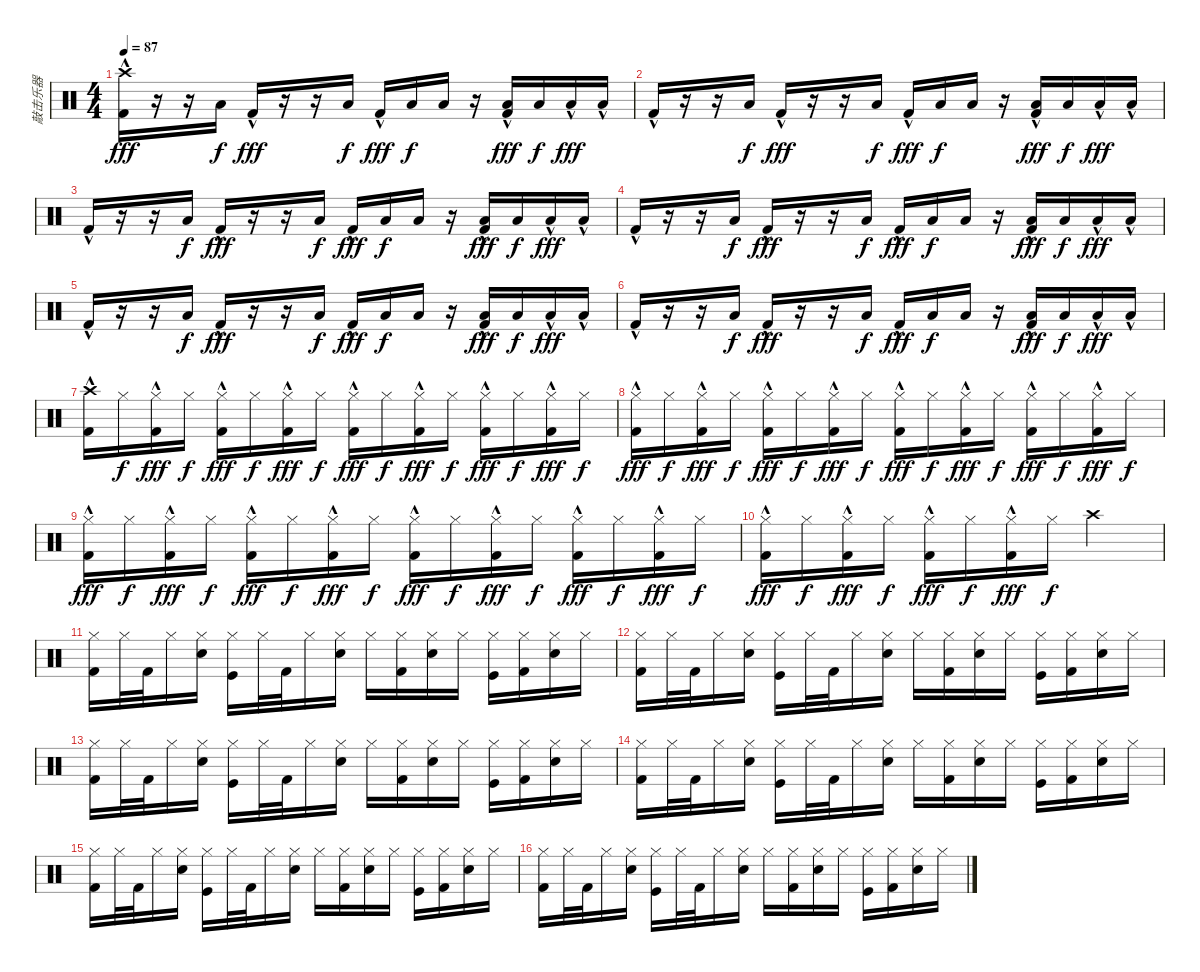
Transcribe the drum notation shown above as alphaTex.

\track ("敲击乐器" "敲击乐器") {instrument percussion}
\staff {score}
\articulation defaults
\ts (4 4)
\tempo 87
\clef neutral
\ks c
("Crash high (hit)" "Kick (hit) 2"{hac}).16{dy fff} r.16 r.16 "Low Floor Tom (hit)".16{dy f} "Kick (hit) 2"{hac}.16{dy fff} r.16 r.16 "Low Floor Tom (hit)".16{dy f} "Kick (hit) 2"{hac}.16{dy fff} "Low Floor Tom (hit)".16{dy f} "Low Floor Tom (hit)".16 r.16 ("Low Floor Tom (hit)" "Kick (hit) 2"{hac}).16{dy fff} "Low Floor Tom (hit)".16{dy f} "Low Floor Tom (hit)"{hac}.16{dy fff} "Low Floor Tom (hit)"{hac}.16 |
"Kick (hit) 2"{hac}.16 r.16 r.16 "Low Floor Tom (hit)".16{dy f} "Kick (hit) 2"{hac}.16{dy fff} r.16 r.16 "Low Floor Tom (hit)".16{dy f} "Kick (hit) 2"{hac}.16{dy fff} "Low Floor Tom (hit)".16{dy f} "Low Floor Tom (hit)".16 r.16 ("Low Floor Tom (hit)" "Kick (hit) 2"{hac}).16{dy fff} "Low Floor Tom (hit)".16{dy f} "Low Floor Tom (hit)"{hac}.16{dy fff} "Low Floor Tom (hit)"{hac}.16 |
"Kick (hit) 2"{hac}.16 r.16 r.16 "Low Floor Tom (hit)".16{dy f} "Kick (hit) 2"{hac}.16{dy fff} r.16 r.16 "Low Floor Tom (hit)".16{dy f} "Kick (hit) 2"{hac}.16{dy fff} "Low Floor Tom (hit)".16{dy f} "Low Floor Tom (hit)".16 r.16 ("Low Floor Tom (hit)" "Kick (hit) 2"{hac}).16{dy fff} "Low Floor Tom (hit)".16{dy f} "Low Floor Tom (hit)"{hac}.16{dy fff} "Low Floor Tom (hit)"{hac}.16 |
"Kick (hit) 2"{hac}.16 r.16 r.16 "Low Floor Tom (hit)".16{dy f} "Kick (hit) 2"{hac}.16{dy fff} r.16 r.16 "Low Floor Tom (hit)".16{dy f} "Kick (hit) 2"{hac}.16{dy fff} "Low Floor Tom (hit)".16{dy f} "Low Floor Tom (hit)".16 r.16 ("Low Floor Tom (hit)" "Kick (hit) 2"{hac}).16{dy fff} "Low Floor Tom (hit)".16{dy f} "Low Floor Tom (hit)"{hac}.16{dy fff} "Low Floor Tom (hit)"{hac}.16 |
"Kick (hit) 2"{hac}.16 r.16 r.16 "Low Floor Tom (hit)".16{dy f} "Kick (hit) 2"{hac}.16{dy fff} r.16 r.16 "Low Floor Tom (hit)".16{dy f} "Kick (hit) 2"{hac}.16{dy fff} "Low Floor Tom (hit)".16{dy f} "Low Floor Tom (hit)".16 r.16 ("Low Floor Tom (hit)" "Kick (hit) 2"{hac}).16{dy fff} "Low Floor Tom (hit)".16{dy f} "Low Floor Tom (hit)"{hac}.16{dy fff} "Low Floor Tom (hit)"{hac}.16 |
"Kick (hit) 2"{hac}.16 r.16 r.16 "Low Floor Tom (hit)".16{dy f} "Kick (hit) 2"{hac}.16{dy fff} r.16 r.16 "Low Floor Tom (hit)".16{dy f} "Kick (hit) 2"{hac}.16{dy fff} "Low Floor Tom (hit)".16{dy f} "Low Floor Tom (hit)".16 r.16 ("Low Floor Tom (hit)" "Kick (hit) 2"{hac}).16{dy fff} "Low Floor Tom (hit)".16{dy f} "Low Floor Tom (hit)"{hac}.16{dy fff} "Low Floor Tom (hit)"{hac}.16 |
("Crash high (hit)"{hac} "Kick (hit) 2"{hac}).16 "Hi-Hat (closed)".16{dy f} ("Hi-Hat (closed)"{hac} "Kick (hit) 2").16{dy fff} "Hi-Hat (closed)".16{dy f} ("Hi-Hat (closed)"{hac} "Kick (hit) 2").16{dy fff} "Hi-Hat (closed)".16{dy f} ("Hi-Hat (closed)"{hac} "Kick (hit) 2").16{dy fff} "Hi-Hat (closed)".16{dy f} ("Hi-Hat (closed)"{hac} "Kick (hit) 2").16{dy fff} "Hi-Hat (closed)".16{dy f} ("Hi-Hat (closed)"{hac} "Kick (hit) 2").16{dy fff} "Hi-Hat (closed)".16{dy f} ("Hi-Hat (closed)"{hac} "Kick (hit) 2").16{dy fff} "Hi-Hat (closed)".16{dy f} ("Hi-Hat (closed)"{hac} "Kick (hit) 2").16{dy fff} "Hi-Hat (closed)".16{dy f} |
("Hi-Hat (closed)"{hac} "Kick (hit) 2"{hac}).16{dy fff} "Hi-Hat (closed)".16{dy f} ("Hi-Hat (closed)"{hac} "Kick (hit) 2").16{dy fff} "Hi-Hat (closed)".16{dy f} ("Hi-Hat (closed)"{hac} "Kick (hit) 2").16{dy fff} "Hi-Hat (closed)".16{dy f} ("Hi-Hat (closed)"{hac} "Kick (hit) 2").16{dy fff} "Hi-Hat (closed)".16{dy f} ("Hi-Hat (closed)"{hac} "Kick (hit) 2").16{dy fff} "Hi-Hat (closed)".16{dy f} ("Hi-Hat (closed)"{hac} "Kick (hit) 2").16{dy fff} "Hi-Hat (closed)".16{dy f} ("Hi-Hat (closed)"{hac} "Kick (hit) 2").16{dy fff} "Hi-Hat (closed)".16{dy f} ("Hi-Hat (closed)"{hac} "Kick (hit) 2").16{dy fff} "Hi-Hat (closed)".16{dy f} |
("Hi-Hat (closed)"{hac} "Kick (hit) 2"{hac}).16{dy fff} "Hi-Hat (closed)".16{dy f} ("Hi-Hat (closed)"{hac} "Kick (hit) 2").16{dy fff} "Hi-Hat (closed)".16{dy f} ("Hi-Hat (closed)"{hac} "Kick (hit) 2").16{dy fff} "Hi-Hat (closed)".16{dy f} ("Hi-Hat (closed)"{hac} "Kick (hit) 2").16{dy fff} "Hi-Hat (closed)".16{dy f} ("Hi-Hat (closed)"{hac} "Kick (hit) 2").16{dy fff} "Hi-Hat (closed)".16{dy f} ("Hi-Hat (closed)"{hac} "Kick (hit) 2").16{dy fff} "Hi-Hat (closed)".16{dy f} ("Hi-Hat (closed)"{hac} "Kick (hit) 2").16{dy fff} "Hi-Hat (closed)".16{dy f} ("Hi-Hat (closed)"{hac} "Kick (hit) 2").16{dy fff} "Hi-Hat (closed)".16{dy f} |
("Hi-Hat (closed)"{hac} "Kick (hit) 2"{hac}).16{dy fff} "Hi-Hat (closed)".16{dy f} ("Hi-Hat (closed)"{hac} "Kick (hit) 2").16{dy fff} "Hi-Hat (closed)".16{dy f} ("Hi-Hat (closed)"{hac} "Kick (hit) 2").16{dy fff} "Hi-Hat (closed)".16{dy f} ("Hi-Hat (closed)"{hac} "Kick (hit) 2").16{dy fff} "Hi-Hat (closed)".16{dy f} "Crash high (hit)".2 |
("Hi-Hat (closed)" "Kick (hit) 2").16 "Hi-Hat (closed)".32 "Kick (hit) 2".32 "Hi-Hat (closed)".16 ("Hi-Hat (closed)" "Snare (hit) 2").16 ("Hi-Hat (closed)" "Kick (hit)").16 "Hi-Hat (closed)".32 "Kick (hit) 2".32 "Hi-Hat (closed)".16 ("Hi-Hat (closed)" "Snare (hit) 2").16 "Hi-Hat (closed)".16 ("Hi-Hat (closed)" "Kick (hit) 2").16 ("Hi-Hat (closed)" "Snare (hit) 2").16 "Hi-Hat (closed)".16 ("Hi-Hat (closed)" "Kick (hit)").16 ("Hi-Hat (closed)" "Kick (hit) 2").16 ("Hi-Hat (closed)" "Snare (hit) 2").16 "Hi-Hat (closed)".16 |
("Hi-Hat (closed)" "Kick (hit) 2").16 "Hi-Hat (closed)".32 "Kick (hit) 2".32 "Hi-Hat (closed)".16 ("Hi-Hat (closed)" "Snare (hit) 2").16 ("Hi-Hat (closed)" "Kick (hit)").16 "Hi-Hat (closed)".32 "Kick (hit) 2".32 "Hi-Hat (closed)".16 ("Hi-Hat (closed)" "Snare (hit) 2").16 "Hi-Hat (closed)".16 ("Hi-Hat (closed)" "Kick (hit) 2").16 ("Hi-Hat (closed)" "Snare (hit) 2").16 "Hi-Hat (closed)".16 ("Hi-Hat (closed)" "Kick (hit)").16 ("Hi-Hat (closed)" "Kick (hit) 2").16 ("Hi-Hat (closed)" "Snare (hit) 2").16 "Hi-Hat (closed)".16 |
("Hi-Hat (closed)" "Kick (hit) 2").16 "Hi-Hat (closed)".32 "Kick (hit) 2".32 "Hi-Hat (closed)".16 ("Hi-Hat (closed)" "Snare (hit) 2").16 ("Hi-Hat (closed)" "Kick (hit)").16 "Hi-Hat (closed)".32 "Kick (hit) 2".32 "Hi-Hat (closed)".16 ("Hi-Hat (closed)" "Snare (hit) 2").16 "Hi-Hat (closed)".16 ("Hi-Hat (closed)" "Kick (hit) 2").16 ("Hi-Hat (closed)" "Snare (hit) 2").16 "Hi-Hat (closed)".16 ("Hi-Hat (closed)" "Kick (hit)").16 ("Hi-Hat (closed)" "Kick (hit) 2").16 ("Hi-Hat (closed)" "Snare (hit) 2").16 "Hi-Hat (closed)".16 |
("Hi-Hat (closed)" "Kick (hit) 2").16 "Hi-Hat (closed)".32 "Kick (hit) 2".32 "Hi-Hat (closed)".16 ("Hi-Hat (closed)" "Snare (hit) 2").16 ("Hi-Hat (closed)" "Kick (hit)").16 "Hi-Hat (closed)".32 "Kick (hit) 2".32 "Hi-Hat (closed)".16 ("Hi-Hat (closed)" "Snare (hit) 2").16 "Hi-Hat (closed)".16 ("Hi-Hat (closed)" "Kick (hit) 2").16 ("Hi-Hat (closed)" "Snare (hit) 2").16 "Hi-Hat (closed)".16 ("Hi-Hat (closed)" "Kick (hit)").16 ("Hi-Hat (closed)" "Kick (hit) 2").16 ("Hi-Hat (closed)" "Snare (hit) 2").16 "Hi-Hat (closed)".16 |
("Hi-Hat (closed)" "Kick (hit) 2").16 "Hi-Hat (closed)".32 "Kick (hit) 2".32 "Hi-Hat (closed)".16 ("Hi-Hat (closed)" "Snare (hit) 2").16 ("Hi-Hat (closed)" "Kick (hit)").16 "Hi-Hat (closed)".32 "Kick (hit) 2".32 "Hi-Hat (closed)".16 ("Hi-Hat (closed)" "Snare (hit) 2").16 "Hi-Hat (closed)".16 ("Hi-Hat (closed)" "Kick (hit) 2").16 ("Hi-Hat (closed)" "Snare (hit) 2").16 "Hi-Hat (closed)".16 ("Hi-Hat (closed)" "Kick (hit)").16 ("Hi-Hat (closed)" "Kick (hit) 2").16 ("Hi-Hat (closed)" "Snare (hit) 2").16 "Hi-Hat (closed)".16 |
("Hi-Hat (closed)" "Kick (hit) 2").16 "Hi-Hat (closed)".32 "Kick (hit) 2".32 "Hi-Hat (closed)".16 ("Hi-Hat (closed)" "Snare (hit) 2").16 ("Hi-Hat (closed)" "Kick (hit)").16 "Hi-Hat (closed)".32 "Kick (hit) 2".32 "Hi-Hat (closed)".16 ("Hi-Hat (closed)" "Snare (hit) 2").16 "Hi-Hat (closed)".16 ("Hi-Hat (closed)" "Kick (hit) 2").16 ("Hi-Hat (closed)" "Snare (hit) 2").16 "Hi-Hat (closed)".16 ("Hi-Hat (closed)" "Kick (hit)").16 ("Hi-Hat (closed)" "Kick (hit) 2").16 ("Hi-Hat (closed)" "Snare (hit) 2").16 "Hi-Hat (closed)".16
